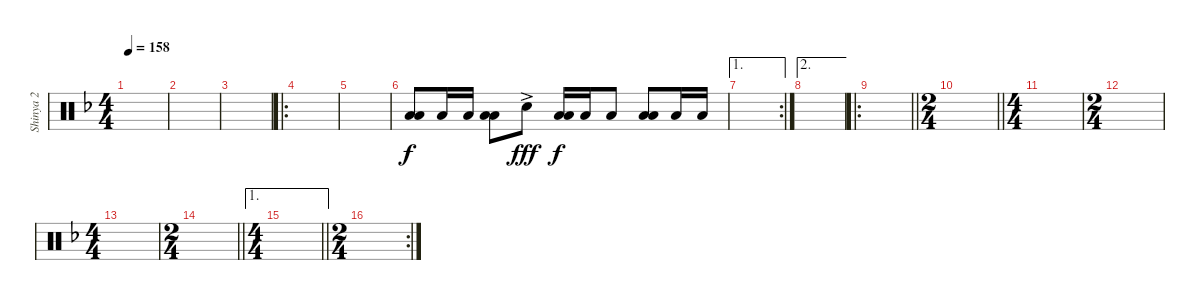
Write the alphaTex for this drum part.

\track ("Shinya 2" "Shinya 2") {instrument percussion}
\staff {score}
\articulation defaults
\ts (4 4)
\tempo 158
\clef neutral
\ks f
|
|
|
\ro
|
|
("Low Floor Tom (hit)" "Low Floor Tom (hit)").8 "Low Tom (hit)".16 "Low Tom (hit)".16 ("Low Tom (hit)" "Low Floor Tom (hit)").8 "Snare (hit) 2"{ac}.8{dy fff} ("Low Tom (hit)" "Low Floor Tom (hit)").16{dy f} "Low Tom (hit)".16 "Low Tom (hit)".8 ("Low Tom (hit)" "Low Floor Tom (hit)").8 "Low Tom (hit)".16 "Low Tom (hit)".16 |
\ae 1
\rc 2
|
\ae 2
|
\ro
\barLineRight lightlight
|
\ts (2 4)
\barLineRight lightlight
|
\ts (4 4)
|
\ts (2 4)
|
\ts (4 4)
|
\ts (2 4)
\barLineRight lightlight
|
\ae 1
\ts (4 4)
\barLineRight lightlight
|
\rc 2
\ts (2 4)
